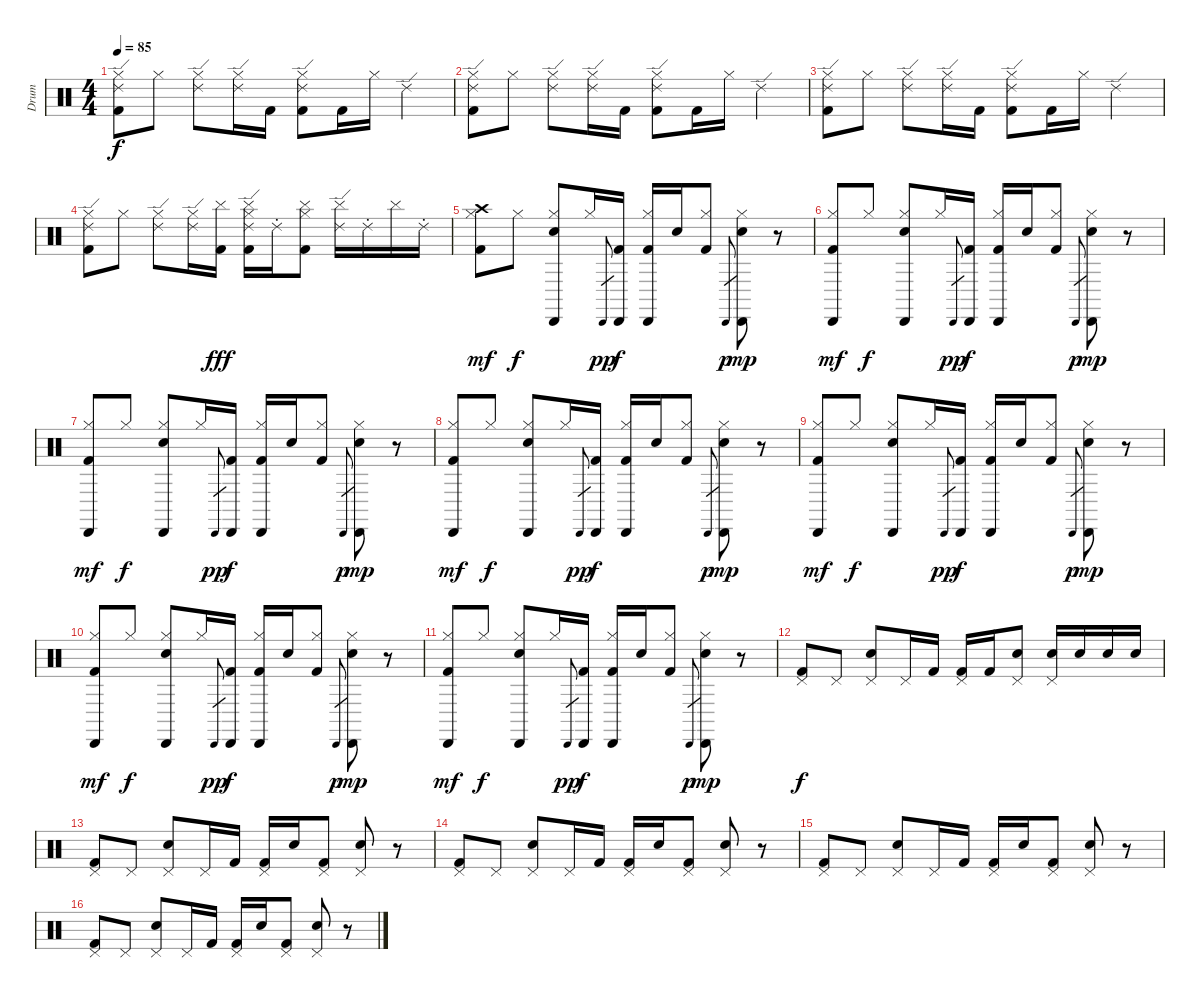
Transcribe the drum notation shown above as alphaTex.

\track ("Drum" "Drum") {instrument percussion}
\staff {score}
\articulation defaults
\ts (4 4)
\tempo 85
\clef neutral
\ks c
("Ride (edge) 2" "Hi-Hat (closed)" "Kick (hit) 2").8{dy f} "Hi-Hat (closed)".8 ("Ride (edge) 2" "Hi-Hat (closed)").8 ("Ride (edge) 2" "Hi-Hat (closed)").16 "Kick (hit) 2".16 ("Ride (edge) 2" "Hi-Hat (closed)" "Kick (hit) 2").8 "Kick (hit) 2".16 "Hi-Hat (closed)".16 "Ride (edge) 2".4 |
("Ride (edge) 2" "Hi-Hat (closed)" "Kick (hit) 2").8 "Hi-Hat (closed)".8 ("Ride (edge) 2" "Hi-Hat (closed)").8 ("Ride (edge) 2" "Hi-Hat (closed)").16 "Kick (hit) 2".16 ("Ride (edge) 2" "Hi-Hat (closed)" "Kick (hit) 2").8 "Kick (hit) 2".16 "Hi-Hat (closed)".16 "Ride (edge) 2".4 |
("Ride (edge) 2" "Hi-Hat (closed)" "Kick (hit) 2").8 "Hi-Hat (closed)".8 ("Ride (edge) 2" "Hi-Hat (closed)").8 ("Ride (edge) 2" "Hi-Hat (closed)").16 "Kick (hit) 2".16 ("Ride (edge) 2" "Hi-Hat (closed)" "Kick (hit) 2").8 "Kick (hit) 2".16 "Hi-Hat (closed)".16 "Ride (edge) 2".4 |
("Ride (edge) 2" "Hi-Hat (closed)" "Kick (hit) 2").8 "Hi-Hat (closed)".8 ("Ride (edge) 2" "Hi-Hat (closed)").8 ("Ride (edge) 2" "Hi-Hat (closed)").16 ("Kick (hit) 2" "Cymbal (hit)").16{dy fff} ("Ride (edge) 2" "Hi-Hat (closed)" "Kick (hit) 2" "Cymbal (hit)").16 "Ride (choke) 2".16 ("Hi-Hat (closed)" "Kick (hit) 2" "Cymbal (hit)").8 ("Ride (edge) 2" "Cymbal (hit)").16 "Ride (choke) 2".16 "Cymbal (hit)".16 "Ride (choke) 2".16 |
("Crash high (hit)" "Kick (hit) 2" "Hi-Hat (closed)").8{dy mf} "Hi-Hat (closed)".8{dy f} ("Cabasa (hit)" "Electric Snare (hit)" "Hi-Hat (closed)").8 "Hi-Hat (closed)".16 "Cabasa (hit)"{h}.8{gr dy pp} ("Cabasa (hit)" "Kick (hit) 2").16{dy f} ("Cabasa (hit)" "Kick (hit) 2" "Hi-Hat (closed)").16 "Electric Snare (hit)".16 ("Kick (hit) 2" "Hi-Hat (closed)").8 "Cabasa (hit)".8{gr dy p} ("Cabasa (hit)" "Electric Snare (hit)" "Hi-Hat (closed)").8{dy mp} r.8 |
("Cabasa (hit)" "Kick (hit) 2" "Hi-Hat (closed)").8{dy mf} "Hi-Hat (closed)".8{dy f} ("Cabasa (hit)" "Electric Snare (hit)" "Hi-Hat (closed)").8 "Hi-Hat (closed)".16 "Cabasa (hit)"{h}.8{gr dy pp} ("Cabasa (hit)" "Kick (hit) 2").16{dy f} ("Cabasa (hit)" "Kick (hit) 2" "Hi-Hat (closed)").16 "Electric Snare (hit)".16 ("Kick (hit) 2" "Hi-Hat (closed)").8 "Cabasa (hit)".8{gr dy p} ("Cabasa (hit)" "Electric Snare (hit)" "Hi-Hat (closed)").8{dy mp} r.8 |
("Cabasa (hit)" "Kick (hit) 2" "Hi-Hat (closed)").8{dy mf} "Hi-Hat (closed)".8{dy f} ("Cabasa (hit)" "Electric Snare (hit)" "Hi-Hat (closed)").8 "Hi-Hat (closed)".16 "Cabasa (hit)"{h}.8{gr dy pp} ("Cabasa (hit)" "Kick (hit) 2").16{dy f} ("Cabasa (hit)" "Kick (hit) 2" "Hi-Hat (closed)").16 "Electric Snare (hit)".16 ("Kick (hit) 2" "Hi-Hat (closed)").8 "Cabasa (hit)".8{gr dy p} ("Cabasa (hit)" "Electric Snare (hit)" "Hi-Hat (closed)").8{dy mp} r.8 |
("Cabasa (hit)" "Kick (hit) 2" "Hi-Hat (closed)").8{dy mf} "Hi-Hat (closed)".8{dy f} ("Cabasa (hit)" "Electric Snare (hit)" "Hi-Hat (closed)").8 "Hi-Hat (closed)".16 "Cabasa (hit)"{h}.8{gr dy pp} ("Cabasa (hit)" "Kick (hit) 2").16{dy f} ("Cabasa (hit)" "Kick (hit) 2" "Hi-Hat (closed)").16 "Electric Snare (hit)".16 ("Kick (hit) 2" "Hi-Hat (closed)").8 "Cabasa (hit)".8{gr dy p} ("Cabasa (hit)" "Electric Snare (hit)" "Hi-Hat (closed)").8{dy mp} r.8 |
("Cabasa (hit)" "Kick (hit) 2" "Hi-Hat (closed)").8{dy mf} "Hi-Hat (closed)".8{dy f} ("Cabasa (hit)" "Electric Snare (hit)" "Hi-Hat (closed)").8 "Hi-Hat (closed)".16 "Cabasa (hit)"{h}.8{gr dy pp} ("Cabasa (hit)" "Kick (hit) 2").16{dy f} ("Cabasa (hit)" "Kick (hit) 2" "Hi-Hat (closed)").16 "Electric Snare (hit)".16 ("Kick (hit) 2" "Hi-Hat (closed)").8 "Cabasa (hit)".8{gr dy p} ("Cabasa (hit)" "Electric Snare (hit)" "Hi-Hat (closed)").8{dy mp} r.8 |
("Cabasa (hit)" "Kick (hit) 2" "Hi-Hat (closed)").8{dy mf} "Hi-Hat (closed)".8{dy f} ("Cabasa (hit)" "Electric Snare (hit)" "Hi-Hat (closed)").8 "Hi-Hat (closed)".16 "Cabasa (hit)"{h}.8{gr dy pp} ("Cabasa (hit)" "Kick (hit) 2").16{dy f} ("Cabasa (hit)" "Kick (hit) 2" "Hi-Hat (closed)").16 "Electric Snare (hit)".16 ("Kick (hit) 2" "Hi-Hat (closed)").8 "Cabasa (hit)".8{gr dy p} ("Cabasa (hit)" "Electric Snare (hit)" "Hi-Hat (closed)").8{dy mp} r.8 |
("Cabasa (hit)" "Kick (hit) 2" "Hi-Hat (closed)").8{dy mf} "Hi-Hat (closed)".8{dy f} ("Cabasa (hit)" "Electric Snare (hit)" "Hi-Hat (closed)").8 "Hi-Hat (closed)".16 "Cabasa (hit)"{h}.8{gr dy pp} ("Cabasa (hit)" "Kick (hit) 2").16{dy f} ("Cabasa (hit)" "Kick (hit) 2" "Hi-Hat (closed)").16 "Electric Snare (hit)".16 ("Kick (hit) 2" "Hi-Hat (closed)").8 "Cabasa (hit)".8{gr dy p} ("Cabasa (hit)" "Electric Snare (hit)" "Hi-Hat (closed)").8{dy mp} r.8 |
("Pedal Hi-Hat (hit)" "Kick (hit) 2").8{dy f} "Pedal Hi-Hat (hit)".8 ("Pedal Hi-Hat (hit)" "Electric Snare (hit)").8 "Pedal Hi-Hat (hit)".16 "Kick (hit) 2".16 ("Pedal Hi-Hat (hit)" "Kick (hit) 2").16 "Kick (hit) 2".16 ("Pedal Hi-Hat (hit)" "Electric Snare (hit)").8 ("Pedal Hi-Hat (hit)" "Electric Snare (hit)").16 "Electric Snare (hit)".16 "Electric Snare (hit)".16 "Electric Snare (hit)".16 |
("Pedal Hi-Hat (hit)" "Kick (hit) 2").8 "Pedal Hi-Hat (hit)".8 ("Pedal Hi-Hat (hit)" "Electric Snare (hit)").8 "Pedal Hi-Hat (hit)".16 "Kick (hit) 2".16 ("Pedal Hi-Hat (hit)" "Kick (hit) 2").16 "Electric Snare (hit)".16 ("Pedal Hi-Hat (hit)" "Kick (hit) 2").8 ("Pedal Hi-Hat (hit)" "Electric Snare (hit)").8 r.8 |
("Pedal Hi-Hat (hit)" "Kick (hit) 2").8 "Pedal Hi-Hat (hit)".8 ("Pedal Hi-Hat (hit)" "Electric Snare (hit)").8 "Pedal Hi-Hat (hit)".16 "Kick (hit) 2".16 ("Pedal Hi-Hat (hit)" "Kick (hit) 2").16 "Electric Snare (hit)".16 ("Pedal Hi-Hat (hit)" "Kick (hit) 2").8 ("Pedal Hi-Hat (hit)" "Electric Snare (hit)").8 r.8 |
("Pedal Hi-Hat (hit)" "Kick (hit) 2").8 "Pedal Hi-Hat (hit)".8 ("Pedal Hi-Hat (hit)" "Electric Snare (hit)").8 "Pedal Hi-Hat (hit)".16 "Kick (hit) 2".16 ("Pedal Hi-Hat (hit)" "Kick (hit) 2").16 "Electric Snare (hit)".16 ("Pedal Hi-Hat (hit)" "Kick (hit) 2").8 ("Pedal Hi-Hat (hit)" "Electric Snare (hit)").8 r.8 |
("Pedal Hi-Hat (hit)" "Kick (hit) 2").8 "Pedal Hi-Hat (hit)".8 ("Pedal Hi-Hat (hit)" "Electric Snare (hit)").8 "Pedal Hi-Hat (hit)".16 "Kick (hit) 2".16 ("Pedal Hi-Hat (hit)" "Kick (hit) 2").16 "Electric Snare (hit)".16 ("Pedal Hi-Hat (hit)" "Kick (hit) 2").8 ("Pedal Hi-Hat (hit)" "Electric Snare (hit)").8 r.8
